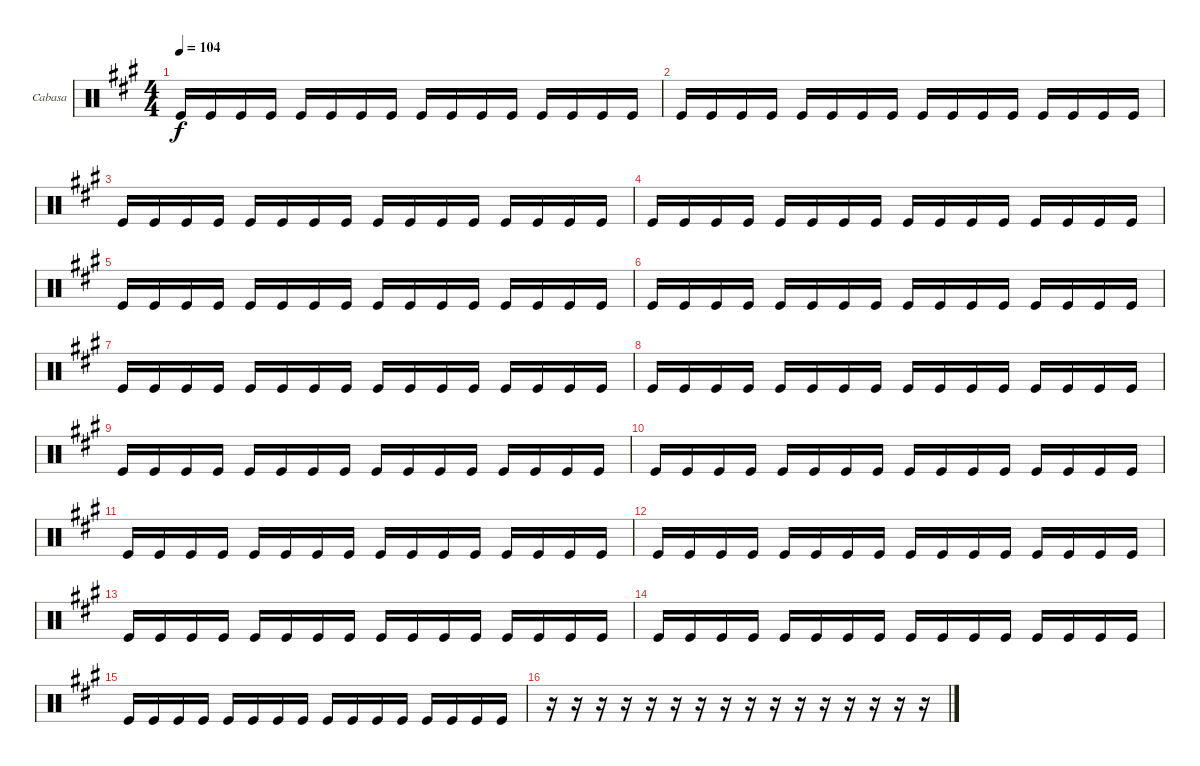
\bracketExtendMode groupsimilarinstruments
\firstSystemTrackNameOrientation horizontal
\otherSystemsTrackNameOrientation horizontal
\track ("Cabasa" "Cabasa") {instrument percussion}
\staff {score}
\articulation defaults
\ts (4 4)
\tempo 104
\clef neutral
\ks a "Kick (hit)".16{dy f} "Kick (hit)".16 "Kick (hit)".16 "Kick (hit)".16 "Kick (hit)".16 "Kick (hit)".16 "Kick (hit)".16 "Kick (hit)".16 "Kick (hit)".16 "Kick (hit)".16 "Kick (hit)".16 "Kick (hit)".16 "Kick (hit)".16 "Kick (hit)".16 "Kick (hit)".16 "Kick (hit)".16
|
"Kick (hit)".16 "Kick (hit)".16 "Kick (hit)".16 "Kick (hit)".16 "Kick (hit)".16 "Kick (hit)".16 "Kick (hit)".16 "Kick (hit)".16 "Kick (hit)".16 "Kick (hit)".16 "Kick (hit)".16 "Kick (hit)".16 "Kick (hit)".16 "Kick (hit)".16 "Kick (hit)".16 "Kick (hit)".16 |
"Kick (hit)".16 "Kick (hit)".16 "Kick (hit)".16 "Kick (hit)".16 "Kick (hit)".16 "Kick (hit)".16 "Kick (hit)".16 "Kick (hit)".16 "Kick (hit)".16 "Kick (hit)".16 "Kick (hit)".16 "Kick (hit)".16 "Kick (hit)".16 "Kick (hit)".16 "Kick (hit)".16 "Kick (hit)".16 |
"Kick (hit)".16 "Kick (hit)".16 "Kick (hit)".16 "Kick (hit)".16 "Kick (hit)".16 "Kick (hit)".16 "Kick (hit)".16 "Kick (hit)".16 "Kick (hit)".16 "Kick (hit)".16 "Kick (hit)".16 "Kick (hit)".16 "Kick (hit)".16 "Kick (hit)".16 "Kick (hit)".16 "Kick (hit)".16 |
"Kick (hit)".16 "Kick (hit)".16 "Kick (hit)".16 "Kick (hit)".16 "Kick (hit)".16 "Kick (hit)".16 "Kick (hit)".16 "Kick (hit)".16 "Kick (hit)".16 "Kick (hit)".16 "Kick (hit)".16 "Kick (hit)".16 "Kick (hit)".16 "Kick (hit)".16 "Kick (hit)".16 "Kick (hit)".16 |
"Kick (hit)".16 "Kick (hit)".16 "Kick (hit)".16 "Kick (hit)".16 "Kick (hit)".16 "Kick (hit)".16 "Kick (hit)".16 "Kick (hit)".16 "Kick (hit)".16 "Kick (hit)".16 "Kick (hit)".16 "Kick (hit)".16 "Kick (hit)".16 "Kick (hit)".16 "Kick (hit)".16 "Kick (hit)".16 |
"Kick (hit)".16 "Kick (hit)".16 "Kick (hit)".16 "Kick (hit)".16 "Kick (hit)".16 "Kick (hit)".16 "Kick (hit)".16 "Kick (hit)".16 "Kick (hit)".16 "Kick (hit)".16 "Kick (hit)".16 "Kick (hit)".16 "Kick (hit)".16 "Kick (hit)".16 "Kick (hit)".16 "Kick (hit)".16 |
"Kick (hit)".16 "Kick (hit)".16 "Kick (hit)".16 "Kick (hit)".16 "Kick (hit)".16 "Kick (hit)".16 "Kick (hit)".16 "Kick (hit)".16 "Kick (hit)".16 "Kick (hit)".16 "Kick (hit)".16 "Kick (hit)".16 "Kick (hit)".16 "Kick (hit)".16 "Kick (hit)".16 "Kick (hit)".16 |
"Kick (hit)".16 "Kick (hit)".16 "Kick (hit)".16 "Kick (hit)".16 "Kick (hit)".16 "Kick (hit)".16 "Kick (hit)".16 "Kick (hit)".16 "Kick (hit)".16 "Kick (hit)".16 "Kick (hit)".16 "Kick (hit)".16 "Kick (hit)".16 "Kick (hit)".16 "Kick (hit)".16 "Kick (hit)".16 |
"Kick (hit)".16 "Kick (hit)".16 "Kick (hit)".16 "Kick (hit)".16 "Kick (hit)".16 "Kick (hit)".16 "Kick (hit)".16 "Kick (hit)".16 "Kick (hit)".16 "Kick (hit)".16 "Kick (hit)".16 "Kick (hit)".16 "Kick (hit)".16 "Kick (hit)".16 "Kick (hit)".16 "Kick (hit)".16 |
"Kick (hit)".16 "Kick (hit)".16 "Kick (hit)".16 "Kick (hit)".16 "Kick (hit)".16 "Kick (hit)".16 "Kick (hit)".16 "Kick (hit)".16 "Kick (hit)".16 "Kick (hit)".16 "Kick (hit)".16 "Kick (hit)".16 "Kick (hit)".16 "Kick (hit)".16 "Kick (hit)".16 "Kick (hit)".16 |
"Kick (hit)".16 "Kick (hit)".16 "Kick (hit)".16 "Kick (hit)".16 "Kick (hit)".16 "Kick (hit)".16 "Kick (hit)".16 "Kick (hit)".16 "Kick (hit)".16 "Kick (hit)".16 "Kick (hit)".16 "Kick (hit)".16 "Kick (hit)".16 "Kick (hit)".16 "Kick (hit)".16 "Kick (hit)".16 |
"Kick (hit)".16 "Kick (hit)".16 "Kick (hit)".16 "Kick (hit)".16 "Kick (hit)".16 "Kick (hit)".16 "Kick (hit)".16 "Kick (hit)".16 "Kick (hit)".16 "Kick (hit)".16 "Kick (hit)".16 "Kick (hit)".16 "Kick (hit)".16 "Kick (hit)".16 "Kick (hit)".16 "Kick (hit)".16 |
"Kick (hit)".16 "Kick (hit)".16 "Kick (hit)".16 "Kick (hit)".16 "Kick (hit)".16 "Kick (hit)".16 "Kick (hit)".16 "Kick (hit)".16 "Kick (hit)".16 "Kick (hit)".16 "Kick (hit)".16 "Kick (hit)".16 "Kick (hit)".16 "Kick (hit)".16 "Kick (hit)".16 "Kick (hit)".16 |
"Kick (hit)".16 "Kick (hit)".16 "Kick (hit)".16 "Kick (hit)".16 "Kick (hit)".16 "Kick (hit)".16 "Kick (hit)".16 "Kick (hit)".16 "Kick (hit)".16 "Kick (hit)".16 "Kick (hit)".16 "Kick (hit)".16 "Kick (hit)".16 "Kick (hit)".16 "Kick (hit)".16 "Kick (hit)".16 |
r.16 r.16 r.16 r.16 r.16 r.16 r.16 r.16 r.16 r.16 r.16 r.16 r.16 r.16 r.16 r.16
